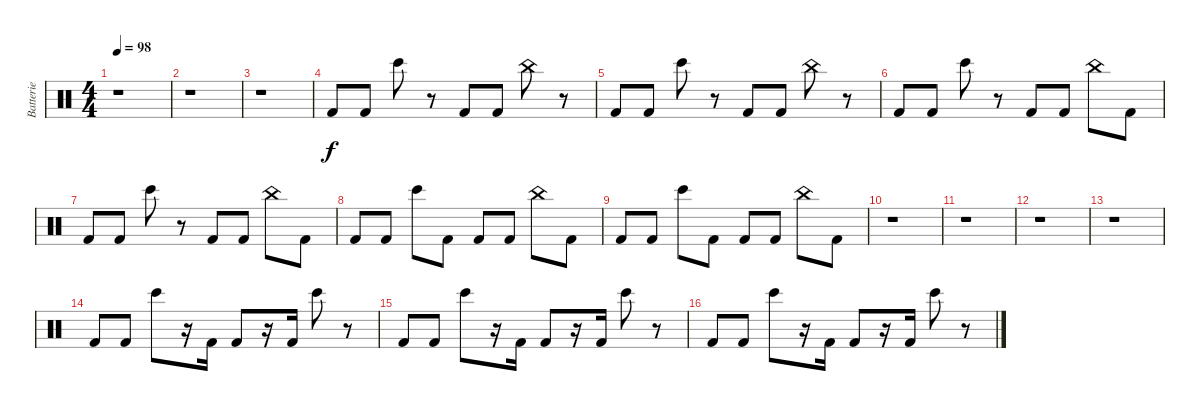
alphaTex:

\track ("Batterie" "Batterie") {instrument percussion}
\staff {score}
\articulation defaults
\ts (4 4)
\tempo 98
\clef neutral
\ks c
r.1{dy f} |
r.1 |
r.1 |
"Kick (hit) 2".8 "Kick (hit) 2".8 "Bongo High (hit)".8 r.8 "Kick (hit) 2".8 "Kick (hit) 2".8 "China (hit)".8 r.8 |
"Kick (hit) 2".8 "Kick (hit) 2".8 "Bongo High (hit)".8 r.8 "Kick (hit) 2".8 "Kick (hit) 2".8 "China (hit)".8 r.8 |
"Kick (hit) 2".8 "Kick (hit) 2".8 "Bongo High (hit)".8 r.8 "Kick (hit) 2".8 "Kick (hit) 2".8 "China (hit)".8 "Kick (hit) 2".8 |
"Kick (hit) 2".8 "Kick (hit) 2".8 "Bongo High (hit)".8 r.8 "Kick (hit) 2".8 "Kick (hit) 2".8 "China (hit)".8 "Kick (hit) 2".8 |
"Kick (hit) 2".8 "Kick (hit) 2".8 "Bongo High (hit)".8 "Kick (hit) 2".8 "Kick (hit) 2".8 "Kick (hit) 2".8 "China (hit)".8 "Kick (hit) 2".8 |
"Kick (hit) 2".8 "Kick (hit) 2".8 "Bongo High (hit)".8 "Kick (hit) 2".8 "Kick (hit) 2".8 "Kick (hit) 2".8 "China (hit)".8 "Kick (hit) 2".8 |
r.1 |
r.1 |
r.1 |
r.1 |
"Kick (hit) 2".8 "Kick (hit) 2".8 "Bongo High (hit)".8 r.16 "Kick (hit) 2".16 "Kick (hit) 2".8 r.16 "Kick (hit) 2".16 "Bongo High (hit)".8 r.8 |
"Kick (hit) 2".8 "Kick (hit) 2".8 "Bongo High (hit)".8 r.16 "Kick (hit) 2".16 "Kick (hit) 2".8 r.16 "Kick (hit) 2".16 "Bongo High (hit)".8 r.8 |
"Kick (hit) 2".8 "Kick (hit) 2".8 "Bongo High (hit)".8 r.16 "Kick (hit) 2".16 "Kick (hit) 2".8 r.16 "Kick (hit) 2".16 "Bongo High (hit)".8 r.8
